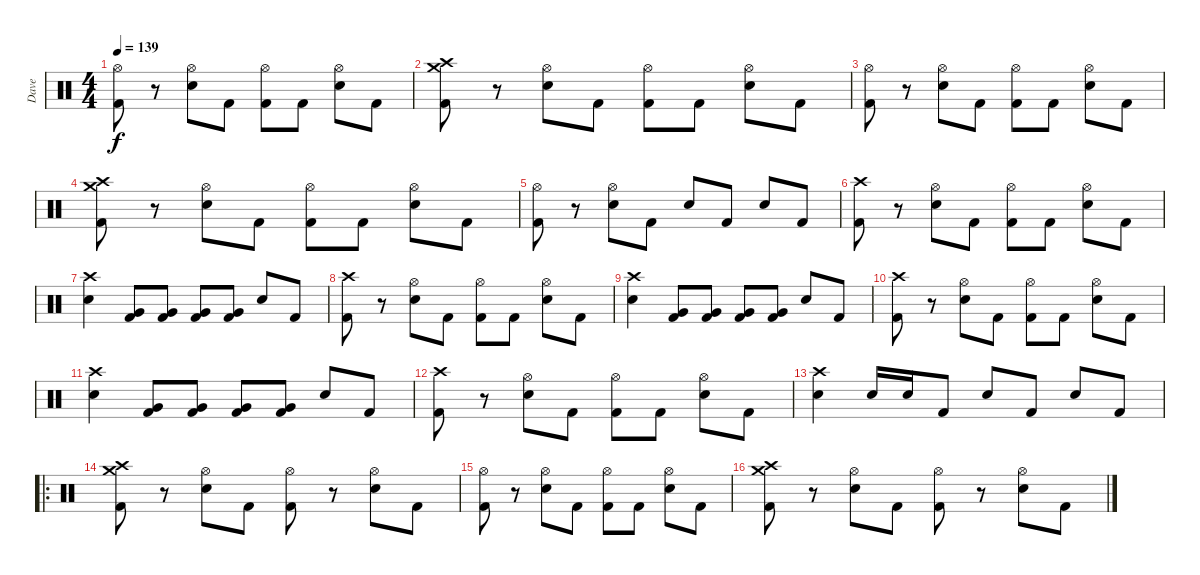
\track ("Dave" "Dave") {instrument percussion}
\staff {score}
\articulation defaults
\ts (4 4)
\tempo 139
\clef neutral
\ks c
("Hi-Hat (open)" "Kick (hit) 2").8{dy f} r.8 ("Hi-Hat (open)" "Snare (hit) 2").8 "Kick (hit) 2".8 ("Hi-Hat (open)" "Kick (hit) 2").8 "Kick (hit) 2".8 ("Hi-Hat (open)" "Snare (hit) 2").8 "Kick (hit) 2".8 |
("Crash medium (hit)" "Crash high (hit)" "Kick (hit) 2").8 r.8 ("Hi-Hat (open)" "Snare (hit) 2").8 "Kick (hit) 2".8 ("Hi-Hat (open)" "Kick (hit) 2").8 "Kick (hit) 2".8 ("Hi-Hat (open)" "Snare (hit) 2").8 "Kick (hit) 2".8 |
("Hi-Hat (open)" "Kick (hit) 2").8 r.8 ("Hi-Hat (open)" "Snare (hit) 2").8 "Kick (hit) 2".8 ("Hi-Hat (open)" "Kick (hit) 2").8 "Kick (hit) 2".8 ("Hi-Hat (open)" "Snare (hit) 2").8 "Kick (hit) 2".8 |
("Crash medium (hit)" "Crash high (hit)" "Kick (hit) 2").8 r.8 ("Hi-Hat (open)" "Snare (hit) 2").8 "Kick (hit) 2".8 ("Hi-Hat (open)" "Kick (hit) 2").8 "Kick (hit) 2".8 ("Hi-Hat (open)" "Snare (hit) 2").8 "Kick (hit) 2".8 |
("Hi-Hat (open)" "Kick (hit) 2").8 r.8 ("Hi-Hat (open)" "Snare (hit) 2").8 "Kick (hit) 2".8 "Snare (hit) 2".8 "Kick (hit) 2".8 "Snare (hit) 2".8 "Kick (hit) 2".8 |
("Crash high (hit)" "Kick (hit) 2").8 r.8 ("Hi-Hat (open)" "Snare (hit) 2").8 "Kick (hit) 2".8 ("Hi-Hat (open)" "Kick (hit) 2").8 "Kick (hit) 2".8 ("Hi-Hat (open)" "Snare (hit) 2").8 "Kick (hit) 2".8 |
("Crash high (hit)" "Snare (hit) 2").4 ("Very Low Tom (hit)" "Kick (hit) 2").8 ("Very Low Tom (hit)" "Kick (hit) 2").8 ("Very Low Tom (hit)" "Kick (hit) 2").8 ("Very Low Tom (hit)" "Kick (hit) 2").8 "Snare (hit) 2".8 "Kick (hit) 2".8 |
("Crash high (hit)" "Kick (hit) 2").8 r.8 ("Hi-Hat (open)" "Snare (hit) 2").8 "Kick (hit) 2".8 ("Hi-Hat (open)" "Kick (hit) 2").8 "Kick (hit) 2".8 ("Hi-Hat (open)" "Snare (hit) 2").8 "Kick (hit) 2".8 |
("Crash high (hit)" "Snare (hit) 2").4 ("Very Low Tom (hit)" "Kick (hit) 2").8 ("Very Low Tom (hit)" "Kick (hit) 2").8 ("Very Low Tom (hit)" "Kick (hit) 2").8 ("Very Low Tom (hit)" "Kick (hit) 2").8 "Snare (hit) 2".8 "Kick (hit) 2".8 |
("Crash high (hit)" "Kick (hit) 2").8 r.8 ("Hi-Hat (open)" "Snare (hit) 2").8 "Kick (hit) 2".8 ("Hi-Hat (open)" "Kick (hit) 2").8 "Kick (hit) 2".8 ("Hi-Hat (open)" "Snare (hit) 2").8 "Kick (hit) 2".8 |
("Crash high (hit)" "Snare (hit) 2").4 ("Very Low Tom (hit)" "Kick (hit) 2").8 ("Very Low Tom (hit)" "Kick (hit) 2").8 ("Very Low Tom (hit)" "Kick (hit) 2").8 ("Very Low Tom (hit)" "Kick (hit) 2").8 "Snare (hit) 2".8 "Kick (hit) 2".8 |
("Crash high (hit)" "Kick (hit) 2").8 r.8 ("Hi-Hat (open)" "Snare (hit) 2").8 "Kick (hit) 2".8 ("Hi-Hat (open)" "Kick (hit) 2").8 "Kick (hit) 2".8 ("Hi-Hat (open)" "Snare (hit) 2").8 "Kick (hit) 2".8 |
("Crash high (hit)" "Snare (hit) 2").4 "Snare (hit) 2".16 "Snare (hit) 2".16 "Kick (hit) 2".8 "Snare (hit) 2".8 "Kick (hit) 2".8 "Snare (hit) 2".8 "Kick (hit) 2".8 |
\ro
("Crash medium (hit)" "Crash high (hit)" "Kick (hit) 2").8 r.8 ("Hi-Hat (open)" "Snare (hit) 2").8 "Kick (hit) 2".8 ("Hi-Hat (open)" "Kick (hit) 2").8 r.8 ("Hi-Hat (open)" "Snare (hit) 2").8 "Kick (hit) 2".8 |
("Hi-Hat (open)" "Kick (hit) 2").8 r.8 ("Hi-Hat (open)" "Snare (hit) 2").8 "Kick (hit) 2".8 ("Hi-Hat (open)" "Kick (hit) 2").8 "Kick (hit) 2".8 ("Hi-Hat (open)" "Snare (hit) 2").8 "Kick (hit) 2".8 |
("Crash medium (hit)" "Crash high (hit)" "Kick (hit) 2").8 r.8 ("Hi-Hat (open)" "Snare (hit) 2").8 "Kick (hit) 2".8 ("Hi-Hat (open)" "Kick (hit) 2").8 r.8 ("Hi-Hat (open)" "Snare (hit) 2").8 "Kick (hit) 2".8
